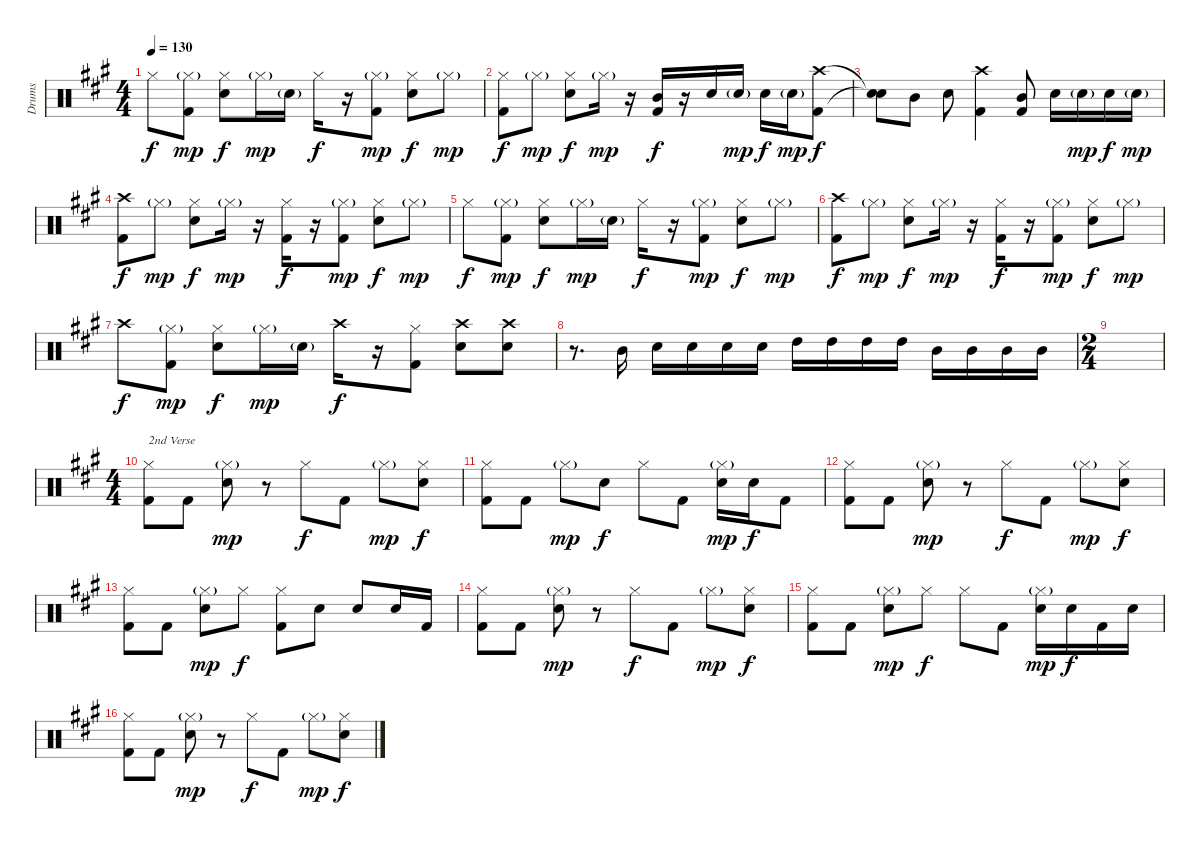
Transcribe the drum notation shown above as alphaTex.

\track ("Drums" "Drums") {instrument percussion}
\staff {score}
\articulation defaults
\ts (4 4)
\tempo 130
\clef neutral
\ks a "Hi-Hat (closed)".8{dy f}
("Hi-Hat (closed)"{g} "Kick (hit) 2").8{dy mp} ("Hi-Hat (closed)" "Electric Snare (hit)").8{dy f} "Hi-Hat (closed)"{g}.16{dy mp} "Electric Snare (hit)"{g}.16 "Hi-Hat (closed)".16{dy f} r.16 ("Hi-Hat (closed)"{g} "Kick (hit) 2").8{dy mp} ("Hi-Hat (closed)" "Electric Snare (hit)").8{dy f} "Hi-Hat (closed)"{g}.8{dy mp} |
("Hi-Hat (closed)" "Kick (hit) 2").8{dy f} "Hi-Hat (closed)"{g}.8{dy mp} ("Hi-Hat (closed)" "Electric Snare (hit)").8{dy f} "Hi-Hat (closed)"{g}.16{dy mp} r.16 ("Mid Tom (hit)" "Kick (hit) 2").16{dy f} r.16 "Electric Snare (hit)".16 "Electric Snare (hit)"{g}.16{dy mp} "Electric Snare (hit)".16{dy f} "Electric Snare (hit)"{g}.16{dy mp} ("Crash high (hit)" "Kick (hit) 2").8{dy f} |
("Snare (hit)"{t} "Snare (hit)"{t}).8 "Mid Tom (hit)".8 "Electric Snare (hit)".8 ("Crash high (hit)" "Kick (hit) 2").4 ("Mid Tom (hit)" "Kick (hit) 2").8 "Electric Snare (hit)".16 "Electric Snare (hit)"{g}.16{dy mp} "Electric Snare (hit)".16{dy f} "Electric Snare (hit)"{g}.16{dy mp} |
("Crash high (hit)" "Kick (hit) 2").8{dy f} "Hi-Hat (closed)"{g}.8{dy mp} ("Hi-Hat (closed)" "Electric Snare (hit)").8{dy f} "Hi-Hat (closed)"{g}.16{dy mp} r.16 ("Hi-Hat (closed)" "Kick (hit) 2").16{dy f} r.16 ("Hi-Hat (closed)"{g} "Kick (hit) 2").8{dy mp} ("Hi-Hat (closed)" "Electric Snare (hit)").8{dy f} "Hi-Hat (closed)"{g}.8{dy mp} |
"Hi-Hat (closed)".8{dy f} ("Hi-Hat (closed)"{g} "Kick (hit) 2").8{dy mp} ("Hi-Hat (closed)" "Electric Snare (hit)").8{dy f} "Hi-Hat (closed)"{g}.16{dy mp} "Electric Snare (hit)"{g}.16 "Hi-Hat (closed)".16{dy f} r.16 ("Hi-Hat (closed)"{g} "Kick (hit) 2").8{dy mp} ("Hi-Hat (closed)" "Electric Snare (hit)").8{dy f} "Hi-Hat (closed)"{g}.8{dy mp} |
("Crash high (hit)" "Kick (hit) 2").8{dy f} "Hi-Hat (closed)"{g}.8{dy mp} ("Hi-Hat (closed)" "Electric Snare (hit)").8{dy f} "Hi-Hat (closed)"{g}.16{dy mp} r.16 ("Hi-Hat (closed)" "Kick (hit) 2").16{dy f} r.16 ("Hi-Hat (closed)"{g} "Kick (hit) 2").8{dy mp} ("Hi-Hat (closed)" "Electric Snare (hit)").8{dy f} "Hi-Hat (closed)"{g}.8{dy mp} |
"Crash high (hit)".8{dy f} ("Hi-Hat (closed)"{g} "Kick (hit) 2").8{dy mp} ("Hi-Hat (closed)" "Electric Snare (hit)").8{dy f} "Hi-Hat (closed)"{g}.16{dy mp} "Electric Snare (hit)"{g}.16 "Crash high (hit)".16{dy f} r.16 ("Hi-Hat (closed)" "Kick (hit) 2").8 ("Crash high (hit)" "Electric Snare (hit)").8 ("Crash high (hit)" "Electric Snare (hit)").8 |
r.8{d} "Mid Tom (hit)".16 "Electric Snare (hit)".16 "Electric Snare (hit)".16 "Electric Snare (hit)".16 "Electric Snare (hit)".16 "High Tom (hit)".16 "High Tom (hit)".16 "High Tom (hit)".16 "High Tom (hit)".16 "Mid Tom (hit)".16 "Mid Tom (hit)".16 "Mid Tom (hit)".16 "Mid Tom (hit)".16 |
\ts (2 4)
|
\ts (4 4)
("Hi-Hat (closed)" "Kick (hit) 2").8{txt "2nd Verse"} "Kick (hit) 2".8 ("Hi-Hat (closed)"{g} "Electric Snare (hit)").8{dy mp} r.8 "Hi-Hat (closed)".8{dy f} "Kick (hit) 2".8 "Hi-Hat (closed)"{g}.8{dy mp} ("Electric Snare (hit)" "Hi-Hat (closed)").8{dy f} |
("Hi-Hat (closed)" "Kick (hit) 2").8 "Kick (hit) 2".8 "Hi-Hat (closed)"{g}.8{dy mp} "Electric Snare (hit)".8{dy f} "Hi-Hat (closed)".8 "Kick (hit) 2".8 ("Hi-Hat (closed)"{g} "Electric Snare (hit)").16{dy mp} "Electric Snare (hit)".16{dy f} "Kick (hit) 2".8 |
("Hi-Hat (closed)" "Kick (hit) 2").8 "Kick (hit) 2".8 ("Hi-Hat (closed)"{g} "Electric Snare (hit)").8{dy mp} r.8 "Hi-Hat (closed)".8{dy f} "Kick (hit) 2".8 "Hi-Hat (closed)"{g}.8{dy mp} ("Electric Snare (hit)" "Hi-Hat (closed)").8{dy f} |
("Hi-Hat (closed)" "Kick (hit) 2").8 "Kick (hit) 2".8 ("Hi-Hat (closed)"{g} "Electric Snare (hit)").8{dy mp} "Hi-Hat (closed)".8{dy f} ("Kick (hit) 2" "Hi-Hat (closed)").8 "Electric Snare (hit)".8 "Electric Snare (hit)".8 "Electric Snare (hit)".16 "Kick (hit) 2".16 |
("Hi-Hat (closed)" "Kick (hit) 2").8 "Kick (hit) 2".8 ("Hi-Hat (closed)"{g} "Electric Snare (hit)").8{dy mp} r.8 "Hi-Hat (closed)".8{dy f} "Kick (hit) 2".8 "Hi-Hat (closed)"{g}.8{dy mp} ("Electric Snare (hit)" "Hi-Hat (closed)").8{dy f} |
("Hi-Hat (closed)" "Kick (hit) 2").8 "Kick (hit) 2".8 ("Electric Snare (hit)" "Hi-Hat (closed)"{g}).8{dy mp} "Hi-Hat (closed)".8{dy f} "Hi-Hat (closed)".8 "Kick (hit) 2".8 ("Electric Snare (hit)" "Hi-Hat (closed)"{g}).16{dy mp} "Electric Snare (hit)".16{dy f} "Kick (hit) 2".16 "Electric Snare (hit)".16 |
("Hi-Hat (closed)" "Kick (hit) 2").8 "Kick (hit) 2".8 ("Hi-Hat (closed)"{g} "Electric Snare (hit)").8{dy mp} r.8 "Hi-Hat (closed)".8{dy f} "Kick (hit) 2".8 "Hi-Hat (closed)"{g}.8{dy mp} ("Electric Snare (hit)" "Hi-Hat (closed)").8{dy f}
